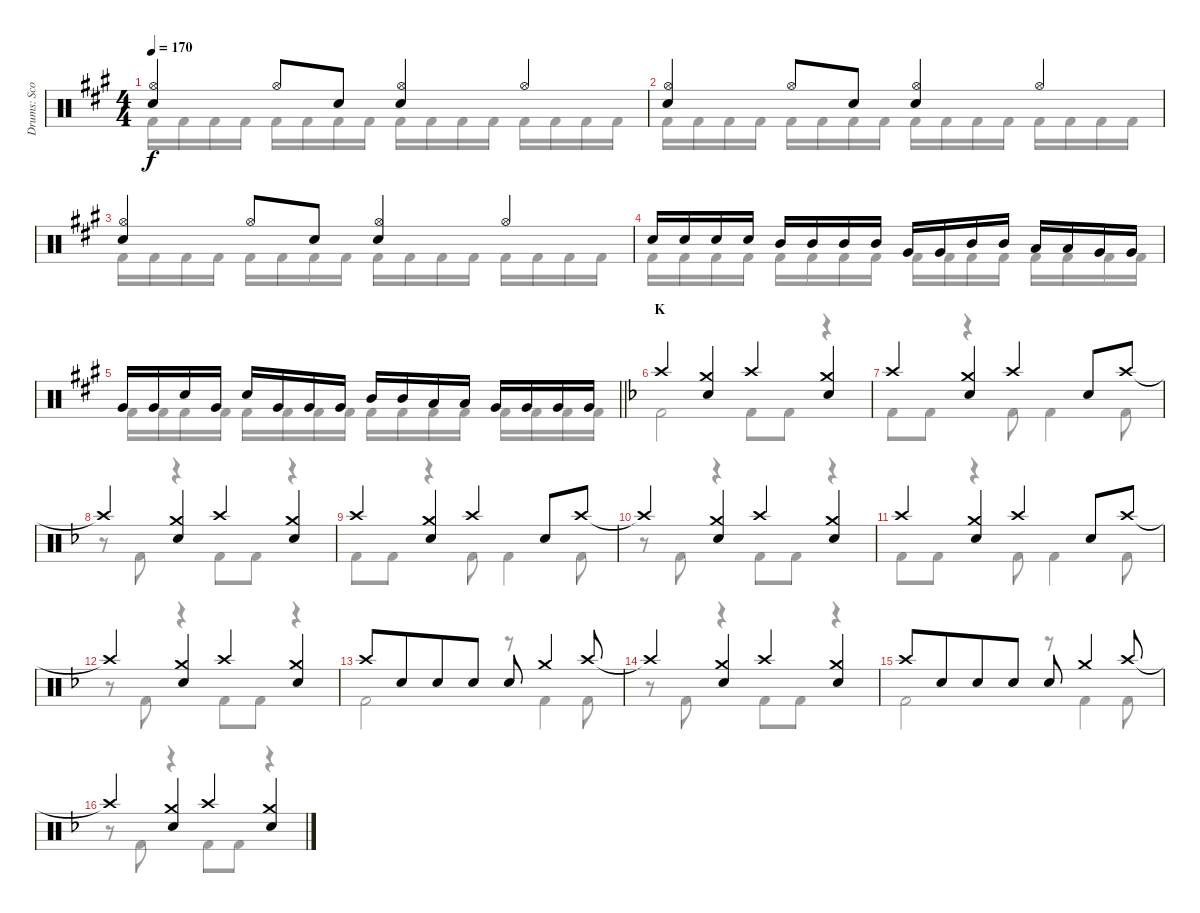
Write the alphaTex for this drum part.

\track ("Drums: Scott" "Drums: Sco") {instrument percussion}
\staff {score}
\articulation defaults
\voice
\ts (4 4)
\tempo 170
\clef neutral
\ks a
("Hi-Hat (open)" "Snare (hit) 2").4{dy f} "Hi-Hat (open)".8 "Snare (hit) 2".8 ("Hi-Hat (open)" "Snare (hit) 2").4 "Hi-Hat (open)".4 |
("Hi-Hat (open)" "Snare (hit) 2").4 "Hi-Hat (open)".8 "Snare (hit) 2".8 ("Hi-Hat (open)" "Snare (hit) 2").4 "Hi-Hat (open)".4 |
("Hi-Hat (open)" "Snare (hit) 2").4 "Hi-Hat (open)".8 "Snare (hit) 2".8 ("Hi-Hat (open)" "Snare (hit) 2").4 "Hi-Hat (open)".4 |
"Snare (hit) 2".16 "Snare (hit) 2".16{beam merge} "Snare (hit) 2".16 "Snare (hit) 2".16 "Mid Tom (hit)".16 "Mid Tom (hit)".16{beam merge} "Mid Tom (hit)".16 "Mid Tom (hit)".16 "Very Low Tom (hit)".16 "Very Low Tom (hit)".16 "Mid Tom (hit)".16 "Mid Tom (hit)".16 "Low Tom (hit)".16 "Low Tom (hit)".16 "Very Low Tom (hit)".16 "Very Low Tom (hit)".16 |
\barLineRight lightlight "Very Low Tom (hit)".16 "Very Low Tom (hit)".16 "Snare (hit) 2".16 "Very Low Tom (hit)".16 "Snare (hit) 2".16 "Very Low Tom (hit)".16 "Very Low Tom (hit)".16 "Very Low Tom (hit)".16 "Mid Tom (hit)".16 "Mid Tom (hit)".16 "Low Tom (hit)".16 "Low Tom (hit)".16 "Very Low Tom (hit)".16 "Very Low Tom (hit)".16 "Very Low Tom (hit)".16 "Very Low Tom (hit)".16
|
\section ("" "K")
\ks f "Crash high (hit)".4
("Crash medium (hit)" "Snare (hit) 2").4 "Crash high (hit)".4 ("Crash medium (hit)" "Snare (hit) 2").4 |
"Crash high (hit)".4 ("Crash medium (hit)" "Snare (hit) 2").4 "Crash high (hit)".4 "Snare (hit) 2".8 "Crash high (hit)".8 |
"Crash high (hit)"{t}.4 ("Crash medium (hit)" "Snare (hit) 2").4 "Crash high (hit)".4 ("Crash medium (hit)" "Snare (hit) 2").4 |
"Crash high (hit)".4 ("Crash medium (hit)" "Snare (hit) 2").4 "Crash high (hit)".4 "Snare (hit) 2".8 "Crash high (hit)".8 |
"Crash high (hit)"{t}.4 ("Crash medium (hit)" "Snare (hit) 2").4 "Crash high (hit)".4 ("Crash medium (hit)" "Snare (hit) 2").4 |
"Crash high (hit)".4 ("Crash medium (hit)" "Snare (hit) 2").4 "Crash high (hit)".4 "Snare (hit) 2".8 "Crash high (hit)".8 |
"Crash high (hit)"{t}.4 ("Crash medium (hit)" "Snare (hit) 2").4 "Crash high (hit)".4 ("Crash medium (hit)" "Snare (hit) 2").4 |
"Crash high (hit)".8 "Snare (hit) 2".8{beam merge} "Snare (hit) 2".8 "Snare (hit) 2".8 "Snare (hit) 2".8 "Crash medium (hit)".4 "Crash high (hit)".8 |
"Crash high (hit)"{t}.4 ("Crash medium (hit)" "Snare (hit) 2").4 "Crash high (hit)".4 ("Crash medium (hit)" "Snare (hit) 2").4 |
"Crash high (hit)".8 "Snare (hit) 2".8{beam merge} "Snare (hit) 2".8 "Snare (hit) 2".8 "Snare (hit) 2".8 "Crash medium (hit)".4 "Crash high (hit)".8 |
"Crash high (hit)"{t}.4 ("Crash medium (hit)" "Snare (hit) 2").4 "Crash high (hit)".4 ("Crash medium (hit)" "Snare (hit) 2").4
\voice
\clef neutral
\ottava regular
\simile none
\ks a "Kick (hit) 2".16{dy f} "Kick (hit) 2".16{beam merge} "Kick (hit) 2".16 "Kick (hit) 2".16 "Kick (hit) 2".16 "Kick (hit) 2".16{beam merge} "Kick (hit) 2".16 "Kick (hit) 2".16 "Kick (hit) 2".16 "Kick (hit) 2".16{beam merge} "Kick (hit) 2".16 "Kick (hit) 2".16 "Kick (hit) 2".16 "Kick (hit) 2".16{beam merge} "Kick (hit) 2".16 "Kick (hit) 2".16
|
"Kick (hit) 2".16 "Kick (hit) 2".16{beam merge} "Kick (hit) 2".16 "Kick (hit) 2".16 "Kick (hit) 2".16 "Kick (hit) 2".16{beam merge} "Kick (hit) 2".16 "Kick (hit) 2".16 "Kick (hit) 2".16 "Kick (hit) 2".16{beam merge} "Kick (hit) 2".16 "Kick (hit) 2".16 "Kick (hit) 2".16 "Kick (hit) 2".16{beam merge} "Kick (hit) 2".16 "Kick (hit) 2".16 |
"Kick (hit) 2".16 "Kick (hit) 2".16{beam merge} "Kick (hit) 2".16 "Kick (hit) 2".16 "Kick (hit) 2".16 "Kick (hit) 2".16{beam merge} "Kick (hit) 2".16 "Kick (hit) 2".16 "Kick (hit) 2".16 "Kick (hit) 2".16{beam merge} "Kick (hit) 2".16 "Kick (hit) 2".16 "Kick (hit) 2".16 "Kick (hit) 2".16{beam merge} "Kick (hit) 2".16 "Kick (hit) 2".16 |
"Kick (hit) 2".16 "Kick (hit) 2".16{beam merge} "Kick (hit) 2".16 "Kick (hit) 2".16 "Kick (hit) 2".16 "Kick (hit) 2".16{beam merge} "Kick (hit) 2".16 "Kick (hit) 2".16 "Kick (hit) 2".16 "Kick (hit) 2".16{beam merge} "Kick (hit) 2".16 "Kick (hit) 2".16 "Kick (hit) 2".16 "Kick (hit) 2".16{beam merge} "Kick (hit) 2".16 "Kick (hit) 2".16 |
\barLineRight lightlight "Kick (hit) 2".16 "Kick (hit) 2".16{beam merge} "Kick (hit) 2".16 "Kick (hit) 2".16 "Kick (hit) 2".16 "Kick (hit) 2".16{beam merge} "Kick (hit) 2".16 "Kick (hit) 2".16 "Kick (hit) 2".16 "Kick (hit) 2".16{beam merge} "Kick (hit) 2".16 "Kick (hit) 2".16 "Kick (hit) 2".16 "Kick (hit) 2".16{beam merge} "Kick (hit) 2".16 "Kick (hit) 2".16
|
\ks f "Kick (hit) 2".2 "Kick (hit) 2".8 "Kick (hit) 2".8
r.4 |
"Kick (hit) 2".8 "Kick (hit) 2".8 r.4 "Kick (hit) 2".8 "Kick (hit) 2".4 "Kick (hit) 2".8 |
r.8 "Kick (hit) 2".8 r.4 "Kick (hit) 2".8 "Kick (hit) 2".8 r.4 |
"Kick (hit) 2".8 "Kick (hit) 2".8 r.4 "Kick (hit) 2".8 "Kick (hit) 2".4 "Kick (hit) 2".8 |
r.8 "Kick (hit) 2".8 r.4 "Kick (hit) 2".8 "Kick (hit) 2".8 r.4 |
"Kick (hit) 2".8 "Kick (hit) 2".8 r.4 "Kick (hit) 2".8 "Kick (hit) 2".4 "Kick (hit) 2".8 |
r.8 "Kick (hit) 2".8 r.4 "Kick (hit) 2".8 "Kick (hit) 2".8 r.4 |
"Kick (hit) 2".2 r.8 "Kick (hit) 2".4 "Kick (hit) 2".8 |
r.8 "Kick (hit) 2".8 r.4 "Kick (hit) 2".8 "Kick (hit) 2".8 r.4 |
"Kick (hit) 2".2 r.8 "Kick (hit) 2".4 "Kick (hit) 2".8 |
r.8 "Kick (hit) 2".8 r.4 "Kick (hit) 2".8 "Kick (hit) 2".8 r.4
